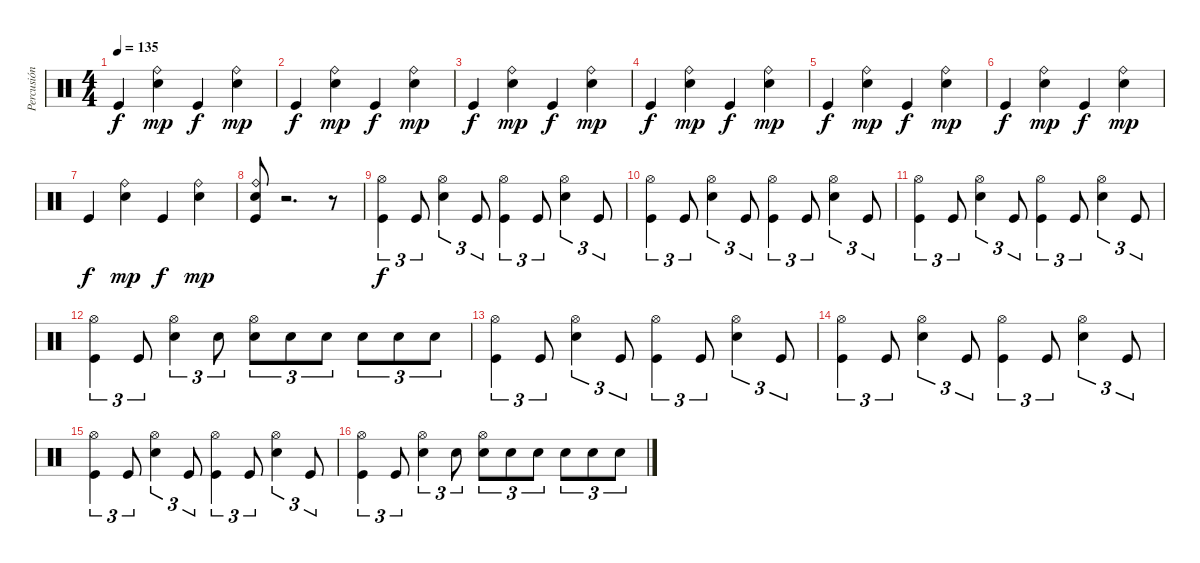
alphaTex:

\track ("Percusión" "Percusión") {instrument percussion}
\staff {score}
\articulation defaults
\ts (4 4)
\tempo 135
\clef neutral
\ks c "Kick (hit)".4{dy f}
("Ride (bell)" "Snare (hit) 2").4{dy mp} "Kick (hit)".4{dy f} ("Ride (bell)" "Snare (hit) 2").4{dy mp} |
"Kick (hit)".4{dy f} ("Ride (bell)" "Snare (hit) 2").4{dy mp} "Kick (hit)".4{dy f} ("Ride (bell)" "Snare (hit) 2").4{dy mp} |
"Kick (hit)".4{dy f} ("Ride (bell)" "Snare (hit) 2").4{dy mp} "Kick (hit)".4{dy f} ("Ride (bell)" "Snare (hit) 2").4{dy mp} |
"Kick (hit)".4{dy f} ("Ride (bell)" "Snare (hit) 2").4{dy mp} "Kick (hit)".4{dy f} ("Ride (bell)" "Snare (hit) 2").4{dy mp} |
"Kick (hit)".4{dy f} ("Ride (bell)" "Snare (hit) 2").4{dy mp} "Kick (hit)".4{dy f} ("Ride (bell)" "Snare (hit) 2").4{dy mp} |
"Kick (hit)".4{dy f} ("Ride (bell)" "Snare (hit) 2").4{dy mp} "Kick (hit)".4{dy f} ("Ride (bell)" "Snare (hit) 2").4{dy mp} |
"Kick (hit)".4{dy f} ("Ride (bell)" "Snare (hit) 2").4{dy mp} "Kick (hit)".4{dy f} ("Ride (bell)" "Snare (hit) 2").4{dy mp} |
("Ride (bell)" "Snare (hit) 2" "Kick (hit)").8 r.2{d} r.8 |
("Hi-Hat (open)" "Kick (hit)").4{tu (3 2) dy f} "Kick (hit)".8{tu (3 2)} ("Hi-Hat (open)" "Snare (hit) 2").4{tu (3 2)} "Kick (hit)".8{tu (3 2)} ("Hi-Hat (open)" "Kick (hit)").4{tu (3 2)} "Kick (hit)".8{tu (3 2)} ("Hi-Hat (open)" "Snare (hit) 2").4{tu (3 2)} "Kick (hit)".8{tu (3 2)} |
("Hi-Hat (open)" "Kick (hit)").4{tu (3 2)} "Kick (hit)".8{tu (3 2)} ("Hi-Hat (open)" "Snare (hit) 2").4{tu (3 2)} "Kick (hit)".8{tu (3 2)} ("Hi-Hat (open)" "Kick (hit)").4{tu (3 2)} "Kick (hit)".8{tu (3 2)} ("Hi-Hat (open)" "Snare (hit) 2").4{tu (3 2)} "Kick (hit)".8{tu (3 2)} |
("Hi-Hat (open)" "Kick (hit)").4{tu (3 2)} "Kick (hit)".8{tu (3 2)} ("Hi-Hat (open)" "Snare (hit) 2").4{tu (3 2)} "Kick (hit)".8{tu (3 2)} ("Hi-Hat (open)" "Kick (hit)").4{tu (3 2)} "Kick (hit)".8{tu (3 2)} ("Hi-Hat (open)" "Snare (hit) 2").4{tu (3 2)} "Kick (hit)".8{tu (3 2)} |
("Hi-Hat (open)" "Kick (hit)").4{tu (3 2)} "Kick (hit)".8{tu (3 2)} ("Hi-Hat (open)" "Snare (hit) 2").4{tu (3 2)} "Snare (hit) 2".8{tu (3 2)} ("Hi-Hat (open)" "Snare (hit) 2").8{tu (3 2)} "Snare (hit) 2".8{tu (3 2)} "Snare (hit) 2".8{tu (3 2)} "Snare (hit) 2".8{tu (3 2)} "Snare (hit) 2".8{tu (3 2)} "Snare (hit) 2".8{tu (3 2)} |
("Hi-Hat (open)" "Kick (hit)").4{tu (3 2)} "Kick (hit)".8{tu (3 2)} ("Hi-Hat (open)" "Snare (hit) 2").4{tu (3 2)} "Kick (hit)".8{tu (3 2)} ("Hi-Hat (open)" "Kick (hit)").4{tu (3 2)} "Kick (hit)".8{tu (3 2)} ("Hi-Hat (open)" "Snare (hit) 2").4{tu (3 2)} "Kick (hit)".8{tu (3 2)} |
("Hi-Hat (open)" "Kick (hit)").4{tu (3 2)} "Kick (hit)".8{tu (3 2)} ("Hi-Hat (open)" "Snare (hit) 2").4{tu (3 2)} "Kick (hit)".8{tu (3 2)} ("Hi-Hat (open)" "Kick (hit)").4{tu (3 2)} "Kick (hit)".8{tu (3 2)} ("Hi-Hat (open)" "Snare (hit) 2").4{tu (3 2)} "Kick (hit)".8{tu (3 2)} |
("Hi-Hat (open)" "Kick (hit)").4{tu (3 2)} "Kick (hit)".8{tu (3 2)} ("Hi-Hat (open)" "Snare (hit) 2").4{tu (3 2)} "Kick (hit)".8{tu (3 2)} ("Hi-Hat (open)" "Kick (hit)").4{tu (3 2)} "Kick (hit)".8{tu (3 2)} ("Hi-Hat (open)" "Snare (hit) 2").4{tu (3 2)} "Kick (hit)".8{tu (3 2)} |
("Hi-Hat (open)" "Kick (hit)").4{tu (3 2)} "Kick (hit)".8{tu (3 2)} ("Hi-Hat (open)" "Snare (hit) 2").4{tu (3 2)} "Snare (hit) 2".8{tu (3 2)} ("Hi-Hat (open)" "Snare (hit) 2").8{tu (3 2)} "Snare (hit) 2".8{tu (3 2)} "Snare (hit) 2".8{tu (3 2)} "Snare (hit) 2".8{tu (3 2)} "Snare (hit) 2".8{tu (3 2)} "Snare (hit) 2".8{tu (3 2)}
